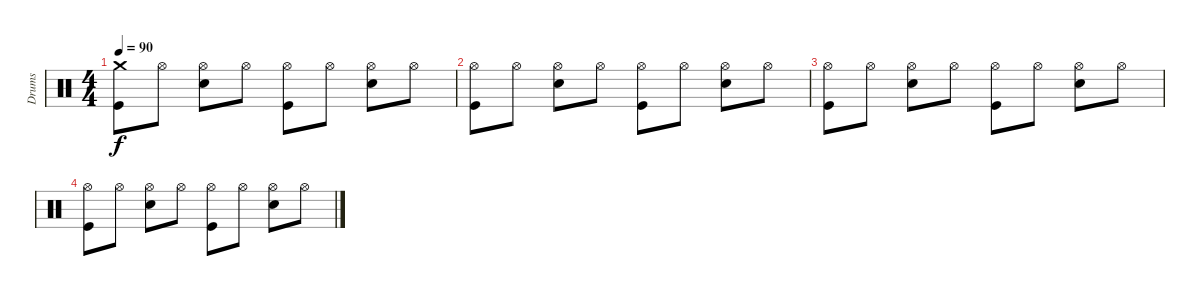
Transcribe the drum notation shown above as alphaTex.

\track ("Drums" "Drums") {instrument percussion}
\staff {score}
\articulation defaults
\ts (4 4)
\tempo 90
\clef neutral
\ks c
("Kick (hit)" "Crash medium (hit)").8{dy f} "Hi-Hat (open)".8 ("Snare (hit) 2" "Hi-Hat (open)").8 "Hi-Hat (open)".8 ("Kick (hit)" "Hi-Hat (open)").8 "Hi-Hat (open)".8 ("Snare (hit) 2" "Hi-Hat (open)").8 "Hi-Hat (open)".8 |
("Kick (hit)" "Hi-Hat (open)").8 "Hi-Hat (open)".8 ("Snare (hit) 2" "Hi-Hat (open)").8 "Hi-Hat (open)".8 ("Kick (hit)" "Hi-Hat (open)").8 "Hi-Hat (open)".8 ("Snare (hit) 2" "Hi-Hat (open)").8 "Hi-Hat (open)".8 |
("Kick (hit)" "Hi-Hat (open)").8 "Hi-Hat (open)".8 ("Snare (hit) 2" "Hi-Hat (open)").8 "Hi-Hat (open)".8 ("Kick (hit)" "Hi-Hat (open)").8 "Hi-Hat (open)".8 ("Snare (hit) 2" "Hi-Hat (open)").8 "Hi-Hat (open)".8 |
("Kick (hit)" "Hi-Hat (open)").8 "Hi-Hat (open)".8 ("Snare (hit) 2" "Hi-Hat (open)").8 "Hi-Hat (open)".8 ("Kick (hit)" "Hi-Hat (open)").8 "Hi-Hat (open)".8 ("Snare (hit) 2" "Hi-Hat (open)").8 "Hi-Hat (open)".8
